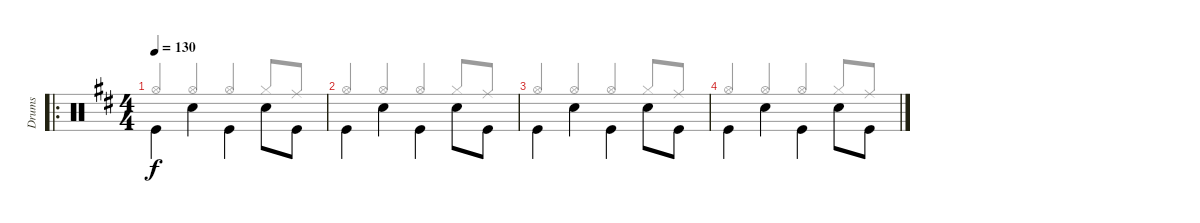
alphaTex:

\track ("Drums" "Drums") {instrument percussion}
\staff {score}
\articulation defaults
\voice
\ro
\ts (4 4)
\tempo 130
\clef neutral
\ks d "Kick (hit)".4{dy f beam Down} "Snare (hit) 2".4{beam Down} "Kick (hit)".4{beam Down} "Snare (hit) 2".8{beam Down} "Kick (hit)".8{beam Down}
|
"Kick (hit)".4{beam Down} "Snare (hit) 2".4{beam Down} "Kick (hit)".4{beam Down} "Snare (hit) 2".8{beam Down} "Kick (hit)".8{beam Down} |
"Kick (hit)".4{beam Down} "Snare (hit) 2".4{beam Down} "Kick (hit)".4{beam Down} "Snare (hit) 2".8{beam Down} "Kick (hit)".8{beam Down} |
"Kick (hit)".4{beam Down} "Snare (hit) 2".4{beam Down} "Kick (hit)".4{beam Down} "Snare (hit) 2".8{beam Down} "Kick (hit)".8{beam Down}
\voice
\clef neutral
\ottava regular
\simile none
\ks d "Hi-Hat (open)".4{dy f beam Up} "Hi-Hat (open)".4{beam Up} "Hi-Hat (open)".4{beam Up} "Hi-Hat (closed)".8{beam Up} "Ride (middle)".8{beam Up}
|
"Hi-Hat (open)".4{beam Up} "Hi-Hat (open)".4{beam Up} "Hi-Hat (open)".4{beam Up} "Hi-Hat (closed)".8{beam Up} "Ride (middle)".8{beam Up} |
"Hi-Hat (open)".4{beam Up} "Hi-Hat (open)".4{beam Up} "Hi-Hat (open)".4{beam Up} "Hi-Hat (closed)".8{beam Up} "Ride (middle)".8{beam Up} |
"Hi-Hat (open)".4{beam Up} "Hi-Hat (open)".4{beam Up} "Hi-Hat (open)".4{beam Up} "Hi-Hat (closed)".8{beam Up} "Ride (middle)".8{beam Up}
